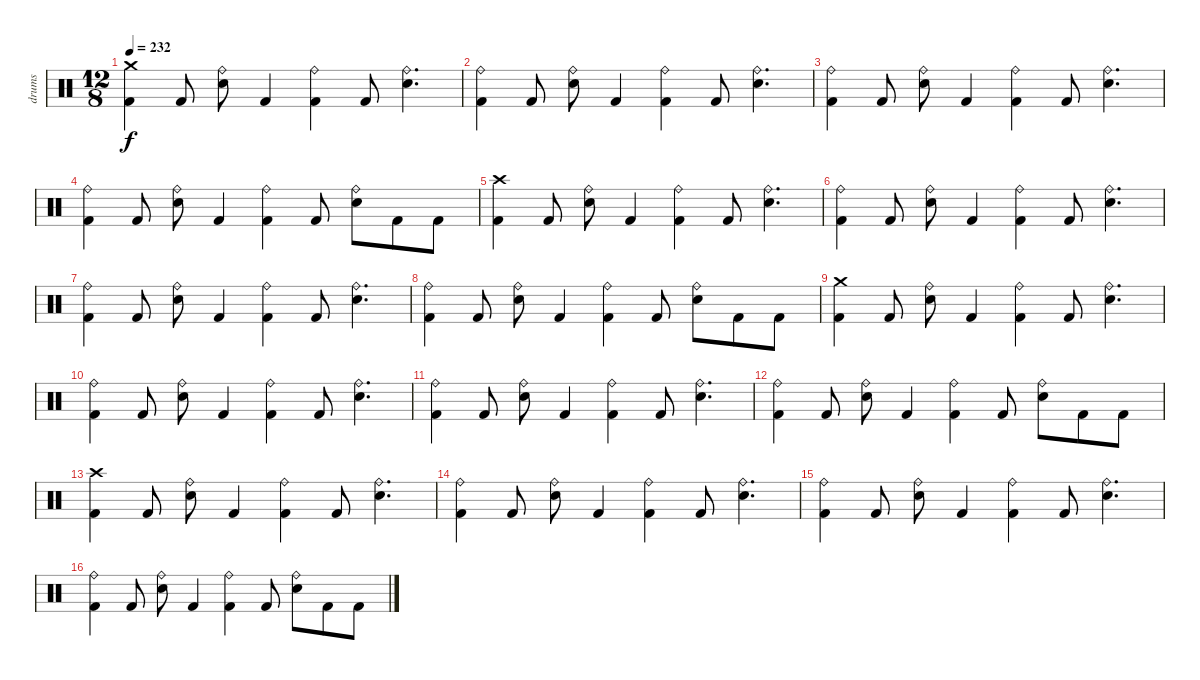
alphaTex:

\track ("drums" "drums") {instrument percussion}
\staff {score}
\articulation defaults
\ts (12 8)
\tempo 232
\clef neutral
\ks c
("Crash medium (hit)" "Kick (hit) 2").4{dy f} "Kick (hit) 2".8 ("Ride (bell)" "Electric Snare (hit)").8 "Kick (hit) 2".4 ("Ride (bell)" "Kick (hit) 2").4 "Kick (hit) 2".8 ("Ride (bell)" "Electric Snare (hit)").4{d} |
("Ride (bell)" "Kick (hit) 2").4 "Kick (hit) 2".8 ("Ride (bell)" "Electric Snare (hit)").8 "Kick (hit) 2".4 ("Ride (bell)" "Kick (hit) 2").4 "Kick (hit) 2".8 ("Ride (bell)" "Electric Snare (hit)").4{d} |
("Kick (hit) 2" "Ride (bell)").4 "Kick (hit) 2".8 ("Ride (bell)" "Electric Snare (hit)").8 "Kick (hit) 2".4 ("Kick (hit) 2" "Ride (bell)").4 "Kick (hit) 2".8 ("Ride (bell)" "Electric Snare (hit)").4{d} |
("Kick (hit) 2" "Ride (bell)").4 "Kick (hit) 2".8 ("Ride (bell)" "Electric Snare (hit)").8 "Kick (hit) 2".4 ("Ride (bell)" "Kick (hit) 2").4 "Kick (hit) 2".8 ("Ride (bell)" "Electric Snare (hit)").8 "Kick (hit) 2".8 "Kick (hit) 2".8 |
("Crash high (hit)" "Kick (hit) 2").4 "Kick (hit) 2".8 ("Ride (bell)" "Electric Snare (hit)").8 "Kick (hit) 2".4 ("Ride (bell)" "Kick (hit) 2").4 "Kick (hit) 2".8 ("Ride (bell)" "Electric Snare (hit)").4{d} |
("Ride (bell)" "Kick (hit) 2").4 "Kick (hit) 2".8 ("Ride (bell)" "Electric Snare (hit)").8 "Kick (hit) 2".4 ("Ride (bell)" "Kick (hit) 2").4 "Kick (hit) 2".8 ("Ride (bell)" "Electric Snare (hit)").4{d} |
("Kick (hit) 2" "Ride (bell)").4 "Kick (hit) 2".8 ("Ride (bell)" "Electric Snare (hit)").8 "Kick (hit) 2".4 ("Kick (hit) 2" "Ride (bell)").4 "Kick (hit) 2".8 ("Ride (bell)" "Electric Snare (hit)").4{d} |
("Kick (hit) 2" "Ride (bell)").4 "Kick (hit) 2".8 ("Ride (bell)" "Electric Snare (hit)").8 "Kick (hit) 2".4 ("Ride (bell)" "Kick (hit) 2").4 "Kick (hit) 2".8 ("Ride (bell)" "Electric Snare (hit)").8 "Kick (hit) 2".8 "Kick (hit) 2".8 |
("Crash medium (hit)" "Kick (hit) 2").4 "Kick (hit) 2".8 ("Ride (bell)" "Electric Snare (hit)").8 "Kick (hit) 2".4 ("Ride (bell)" "Kick (hit) 2").4 "Kick (hit) 2".8 ("Ride (bell)" "Electric Snare (hit)").4{d} |
("Ride (bell)" "Kick (hit) 2").4 "Kick (hit) 2".8 ("Ride (bell)" "Electric Snare (hit)").8 "Kick (hit) 2".4 ("Ride (bell)" "Kick (hit) 2").4 "Kick (hit) 2".8 ("Ride (bell)" "Electric Snare (hit)").4{d} |
("Kick (hit) 2" "Ride (bell)").4 "Kick (hit) 2".8 ("Ride (bell)" "Electric Snare (hit)").8 "Kick (hit) 2".4 ("Kick (hit) 2" "Ride (bell)").4 "Kick (hit) 2".8 ("Ride (bell)" "Electric Snare (hit)").4{d} |
("Kick (hit) 2" "Ride (bell)").4 "Kick (hit) 2".8 ("Ride (bell)" "Electric Snare (hit)").8 "Kick (hit) 2".4 ("Ride (bell)" "Kick (hit) 2").4 "Kick (hit) 2".8 ("Ride (bell)" "Electric Snare (hit)").8 "Kick (hit) 2".8 "Kick (hit) 2".8 |
("Crash high (hit)" "Kick (hit) 2").4 "Kick (hit) 2".8 ("Ride (bell)" "Electric Snare (hit)").8 "Kick (hit) 2".4 ("Ride (bell)" "Kick (hit) 2").4 "Kick (hit) 2".8 ("Ride (bell)" "Electric Snare (hit)").4{d} |
("Ride (bell)" "Kick (hit) 2").4 "Kick (hit) 2".8 ("Ride (bell)" "Electric Snare (hit)").8 "Kick (hit) 2".4 ("Ride (bell)" "Kick (hit) 2").4 "Kick (hit) 2".8 ("Ride (bell)" "Electric Snare (hit)").4{d} |
("Kick (hit) 2" "Ride (bell)").4 "Kick (hit) 2".8 ("Ride (bell)" "Electric Snare (hit)").8 "Kick (hit) 2".4 ("Kick (hit) 2" "Ride (bell)").4 "Kick (hit) 2".8 ("Ride (bell)" "Electric Snare (hit)").4{d} |
("Kick (hit) 2" "Ride (bell)").4 "Kick (hit) 2".8 ("Ride (bell)" "Electric Snare (hit)").8 "Kick (hit) 2".4 ("Ride (bell)" "Kick (hit) 2").4 "Kick (hit) 2".8 ("Ride (bell)" "Electric Snare (hit)").8 "Kick (hit) 2".8 "Kick (hit) 2".8
